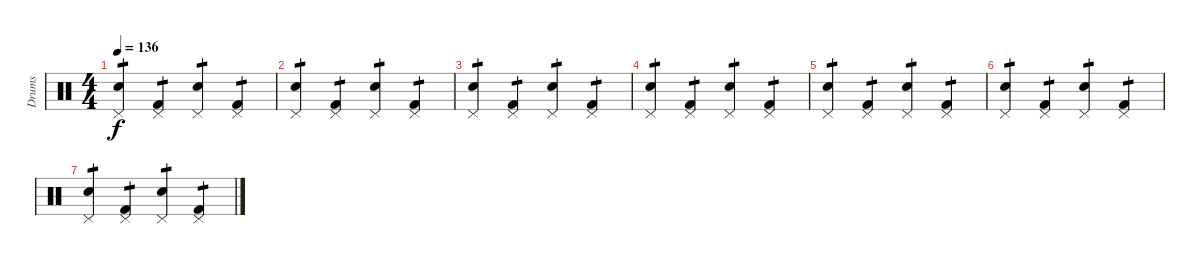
\track ("Drums" "Drums") {instrument percussion}
\staff {score}
\articulation defaults
\ts (4 4)
\tempo 136
\clef neutral
\ks c
("Snare (hit) 2" "Pedal Hi-Hat (hit)").4{tp 1 dy f} ("Kick (hit) 2" "Pedal Hi-Hat (hit)").4{tp 1} ("Snare (hit) 2" "Pedal Hi-Hat (hit)").4{tp 1} ("Kick (hit) 2" "Pedal Hi-Hat (hit)").4{tp 1} |
("Snare (hit) 2" "Pedal Hi-Hat (hit)").4{tp 1} ("Kick (hit) 2" "Pedal Hi-Hat (hit)").4{tp 1} ("Snare (hit) 2" "Pedal Hi-Hat (hit)").4{tp 1} ("Kick (hit) 2" "Pedal Hi-Hat (hit)").4{tp 1} |
("Snare (hit) 2" "Pedal Hi-Hat (hit)").4{tp 1} ("Kick (hit) 2" "Pedal Hi-Hat (hit)").4{tp 1} ("Snare (hit) 2" "Pedal Hi-Hat (hit)").4{tp 1} ("Kick (hit) 2" "Pedal Hi-Hat (hit)").4{tp 1} |
("Snare (hit) 2" "Pedal Hi-Hat (hit)").4{tp 1} ("Kick (hit) 2" "Pedal Hi-Hat (hit)").4{tp 1} ("Snare (hit) 2" "Pedal Hi-Hat (hit)").4{tp 1} ("Kick (hit) 2" "Pedal Hi-Hat (hit)").4{tp 1} |
("Snare (hit) 2" "Pedal Hi-Hat (hit)").4{tp 1} ("Kick (hit) 2" "Pedal Hi-Hat (hit)").4{tp 1} ("Snare (hit) 2" "Pedal Hi-Hat (hit)").4{tp 1} ("Kick (hit) 2" "Pedal Hi-Hat (hit)").4{tp 1} |
("Snare (hit) 2" "Pedal Hi-Hat (hit)").4{tp 1} ("Kick (hit) 2" "Pedal Hi-Hat (hit)").4{tp 1} ("Snare (hit) 2" "Pedal Hi-Hat (hit)").4{tp 1} ("Kick (hit) 2" "Pedal Hi-Hat (hit)").4{tp 1} |
("Snare (hit) 2" "Pedal Hi-Hat (hit)").4{tp 1} ("Kick (hit) 2" "Pedal Hi-Hat (hit)").4{tp 1} ("Snare (hit) 2" "Pedal Hi-Hat (hit)").4{tp 1} ("Kick (hit) 2" "Pedal Hi-Hat (hit)").4{tp 1}
